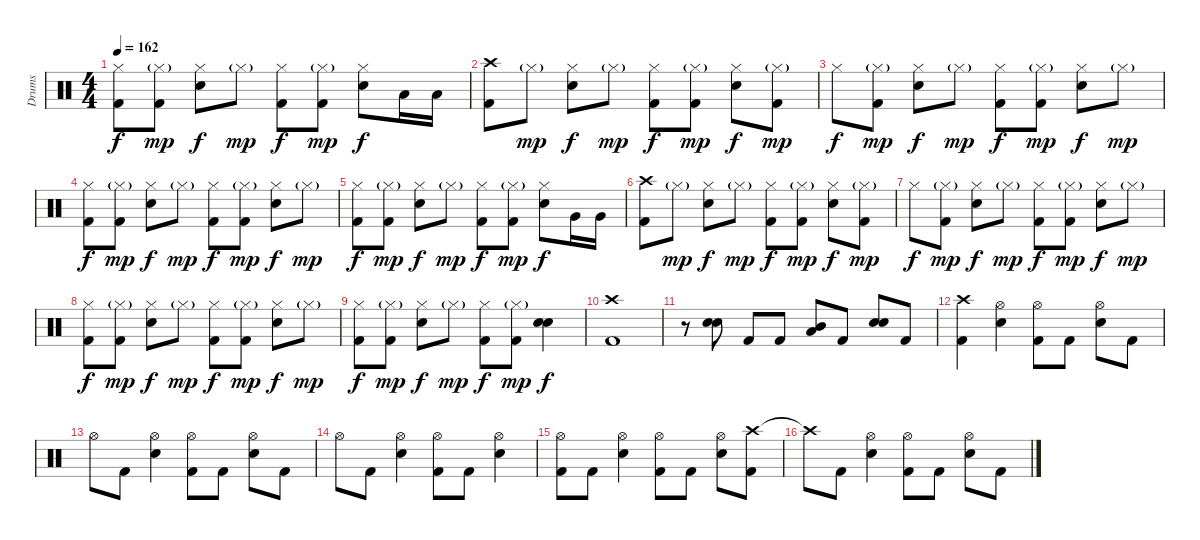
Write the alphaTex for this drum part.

\track ("Drums" "Drums") {instrument percussion}
\staff {score}
\articulation defaults
\ts (4 4)
\tempo 162
\clef neutral
\ks c
("Hi-Hat (closed)" "Kick (hit) 2").8{dy f} ("Hi-Hat (closed)"{g} "Kick (hit) 2").8{dy mp} ("Hi-Hat (closed)" "Snare (hit) 2").8{dy f} "Hi-Hat (closed)"{g}.8{dy mp} ("Hi-Hat (closed)" "Kick (hit) 2").8{dy f} ("Hi-Hat (closed)"{g} "Kick (hit) 2").8{dy mp} ("Hi-Hat (closed)" "Snare (hit) 2").8{dy f} "Low Tom (hit)".16 "Low Tom (hit)".16 |
("Crash high (hit)" "Kick (hit) 2").8 "Hi-Hat (closed)"{g}.8{dy mp} ("Hi-Hat (closed)" "Snare (hit) 2").8{dy f} "Hi-Hat (closed)"{g}.8{dy mp} ("Hi-Hat (closed)" "Kick (hit) 2").8{dy f} ("Hi-Hat (closed)"{g} "Kick (hit) 2").8{dy mp} ("Hi-Hat (closed)" "Snare (hit) 2").8{dy f} ("Hi-Hat (closed)"{g} "Kick (hit) 2").8{dy mp} |
"Hi-Hat (closed)".8{dy f} ("Hi-Hat (closed)"{g} "Kick (hit) 2").8{dy mp} ("Hi-Hat (closed)" "Snare (hit) 2").8{dy f} "Hi-Hat (closed)"{g}.8{dy mp} ("Hi-Hat (closed)" "Kick (hit) 2").8{dy f} ("Hi-Hat (closed)"{g} "Kick (hit) 2").8{dy mp} ("Hi-Hat (closed)" "Snare (hit) 2").8{dy f} "Hi-Hat (closed)"{g}.8{dy mp} |
("Hi-Hat (closed)" "Kick (hit) 2").8{dy f} ("Hi-Hat (closed)"{g} "Kick (hit) 2").8{dy mp} ("Hi-Hat (closed)" "Snare (hit) 2").8{dy f} "Hi-Hat (closed)"{g}.8{dy mp} ("Hi-Hat (closed)" "Kick (hit) 2").8{dy f} ("Hi-Hat (closed)"{g} "Kick (hit) 2").8{dy mp} ("Hi-Hat (closed)" "Snare (hit) 2").8{dy f} "Hi-Hat (closed)"{g}.8{dy mp} |
("Hi-Hat (closed)" "Kick (hit) 2").8{dy f} ("Hi-Hat (closed)"{g} "Kick (hit) 2").8{dy mp} ("Hi-Hat (closed)" "Snare (hit) 2").8{dy f} "Hi-Hat (closed)"{g}.8{dy mp} ("Hi-Hat (closed)" "Kick (hit) 2").8{dy f} ("Hi-Hat (closed)"{g} "Kick (hit) 2").8{dy mp} ("Hi-Hat (closed)" "Snare (hit) 2").8{dy f} "Very Low Tom (hit)".16 "Very Low Tom (hit)".16 |
("Crash high (hit)" "Kick (hit) 2").8 "Hi-Hat (closed)"{g}.8{dy mp} ("Hi-Hat (closed)" "Snare (hit) 2").8{dy f} "Hi-Hat (closed)"{g}.8{dy mp} ("Hi-Hat (closed)" "Kick (hit) 2").8{dy f} ("Hi-Hat (closed)"{g} "Kick (hit) 2").8{dy mp} ("Hi-Hat (closed)" "Snare (hit) 2").8{dy f} ("Hi-Hat (closed)"{g} "Kick (hit) 2").8{dy mp} |
"Hi-Hat (closed)".8{dy f} ("Hi-Hat (closed)"{g} "Kick (hit) 2").8{dy mp} ("Hi-Hat (closed)" "Snare (hit) 2").8{dy f} "Hi-Hat (closed)"{g}.8{dy mp} ("Hi-Hat (closed)" "Kick (hit) 2").8{dy f} ("Hi-Hat (closed)"{g} "Kick (hit) 2").8{dy mp} ("Hi-Hat (closed)" "Snare (hit) 2").8{dy f} "Hi-Hat (closed)"{g}.8{dy mp} |
("Hi-Hat (closed)" "Kick (hit) 2").8{dy f} ("Hi-Hat (closed)"{g} "Kick (hit) 2").8{dy mp} ("Hi-Hat (closed)" "Snare (hit) 2").8{dy f} "Hi-Hat (closed)"{g}.8{dy mp} ("Hi-Hat (closed)" "Kick (hit) 2").8{dy f} ("Hi-Hat (closed)"{g} "Kick (hit) 2").8{dy mp} ("Hi-Hat (closed)" "Snare (hit) 2").8{dy f} "Hi-Hat (closed)"{g}.8{dy mp} |
("Hi-Hat (closed)" "Kick (hit) 2").8{dy f} ("Hi-Hat (closed)"{g} "Kick (hit) 2").8{dy mp} ("Hi-Hat (closed)" "Snare (hit) 2").8{dy f} "Hi-Hat (closed)"{g}.8{dy mp} ("Hi-Hat (closed)" "Kick (hit) 2").8{dy f} ("Hi-Hat (closed)"{g} "Kick (hit) 2").8{dy mp} ("Snare (hit) 2" "Snare (hit) 2").4{dy f} |
("Crash high (hit)" "Kick (hit) 2").1 |
r.8 ("Snare (hit) 2" "Snare (hit) 2").8 "Kick (hit) 2".8 "Kick (hit) 2".8 ("Mid Tom (hit)" "Low Tom (hit)").8 "Kick (hit) 2".8 ("Snare (hit) 2" "Snare (hit) 2").8 "Kick (hit) 2".8 |
("Crash high (hit)" "Kick (hit) 2").4 ("Hi-Hat (open)" "Snare (hit) 2").4 ("Hi-Hat (open)" "Kick (hit) 2").8 "Kick (hit) 2".8 ("Hi-Hat (open)" "Snare (hit) 2").8 "Kick (hit) 2".8 |
"Hi-Hat (open)".8 "Kick (hit) 2".8 ("Hi-Hat (open)" "Snare (hit) 2").4 ("Hi-Hat (open)" "Kick (hit) 2").8 "Kick (hit) 2".8 ("Hi-Hat (open)" "Snare (hit) 2").8 "Kick (hit) 2".8 |
"Hi-Hat (open)".8 "Kick (hit) 2".8 ("Hi-Hat (open)" "Snare (hit) 2").4 ("Hi-Hat (open)" "Kick (hit) 2").8 "Kick (hit) 2".8 ("Hi-Hat (open)" "Snare (hit) 2").4 |
("Hi-Hat (open)" "Kick (hit) 2").8 "Kick (hit) 2".8 ("Hi-Hat (open)" "Snare (hit) 2").4 ("Hi-Hat (open)" "Kick (hit) 2").8 "Kick (hit) 2".8 ("Hi-Hat (open)" "Snare (hit) 2").8 ("Crash high (hit)" "Kick (hit) 2").8 |
"Crash high (hit)"{t}.8 "Kick (hit) 2".8 ("Hi-Hat (open)" "Snare (hit) 2").4 ("Hi-Hat (open)" "Kick (hit) 2").8 "Kick (hit) 2".8 ("Hi-Hat (open)" "Snare (hit) 2").8 "Kick (hit) 2".8
